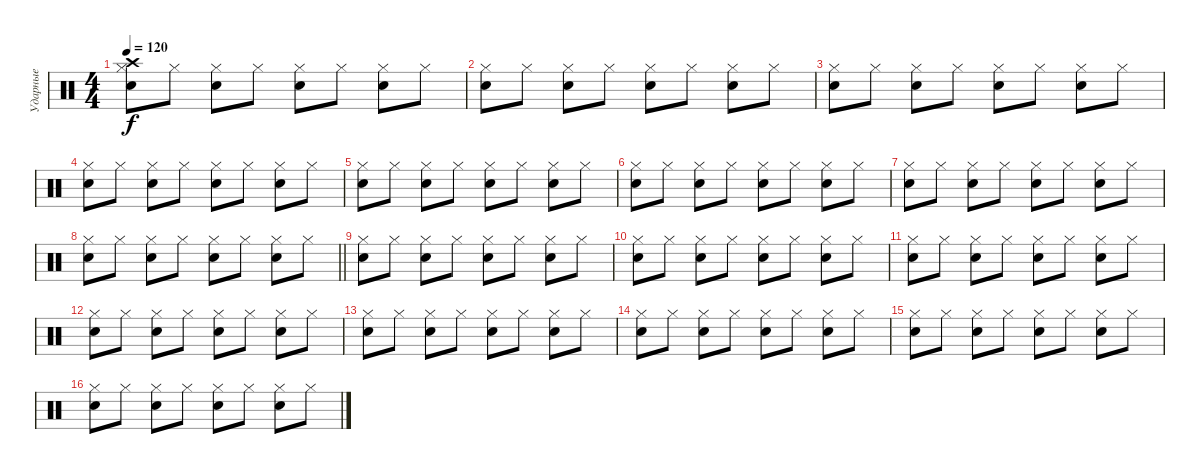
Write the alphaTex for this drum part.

\track ("Ударные" "Ударные") {instrument percussion}
\staff {score}
\articulation defaults
\ts (4 4)
\tempo 120
\clef neutral
\ks c
("Hi-Hat (closed)" "Crash high (hit)" "Snare (hit) 2").8{dy f} "Hi-Hat (closed)".8 ("Hi-Hat (closed)" "Snare (hit) 2").8 "Hi-Hat (closed)".8 ("Hi-Hat (closed)" "Snare (hit) 2").8 "Hi-Hat (closed)".8 ("Hi-Hat (closed)" "Snare (hit) 2").8 "Hi-Hat (closed)".8 |
("Hi-Hat (closed)" "Snare (hit) 2").8 "Hi-Hat (closed)".8 ("Hi-Hat (closed)" "Snare (hit) 2").8 "Hi-Hat (closed)".8 ("Hi-Hat (closed)" "Snare (hit) 2").8 "Hi-Hat (closed)".8 ("Hi-Hat (closed)" "Snare (hit) 2").8 "Hi-Hat (closed)".8 |
("Hi-Hat (closed)" "Snare (hit) 2").8 "Hi-Hat (closed)".8 ("Hi-Hat (closed)" "Snare (hit) 2").8 "Hi-Hat (closed)".8 ("Hi-Hat (closed)" "Snare (hit) 2").8 "Hi-Hat (closed)".8 ("Hi-Hat (closed)" "Snare (hit) 2").8 "Hi-Hat (closed)".8 |
("Hi-Hat (closed)" "Snare (hit) 2").8 "Hi-Hat (closed)".8 ("Hi-Hat (closed)" "Snare (hit) 2").8 "Hi-Hat (closed)".8 ("Hi-Hat (closed)" "Snare (hit) 2").8 "Hi-Hat (closed)".8 ("Hi-Hat (closed)" "Snare (hit) 2").8 "Hi-Hat (closed)".8 |
("Hi-Hat (closed)" "Snare (hit) 2").8 "Hi-Hat (closed)".8 ("Hi-Hat (closed)" "Snare (hit) 2").8 "Hi-Hat (closed)".8 ("Hi-Hat (closed)" "Snare (hit) 2").8 "Hi-Hat (closed)".8 ("Hi-Hat (closed)" "Snare (hit) 2").8 "Hi-Hat (closed)".8 |
("Hi-Hat (closed)" "Snare (hit) 2").8 "Hi-Hat (closed)".8 ("Hi-Hat (closed)" "Snare (hit) 2").8 "Hi-Hat (closed)".8 ("Hi-Hat (closed)" "Snare (hit) 2").8 "Hi-Hat (closed)".8 ("Hi-Hat (closed)" "Snare (hit) 2").8 "Hi-Hat (closed)".8 |
("Hi-Hat (closed)" "Snare (hit) 2").8 "Hi-Hat (closed)".8 ("Hi-Hat (closed)" "Snare (hit) 2").8 "Hi-Hat (closed)".8 ("Hi-Hat (closed)" "Snare (hit) 2").8 "Hi-Hat (closed)".8 ("Hi-Hat (closed)" "Snare (hit) 2").8 "Hi-Hat (closed)".8 |
\barLineRight lightlight
("Hi-Hat (closed)" "Snare (hit) 2").8 "Hi-Hat (closed)".8 ("Hi-Hat (closed)" "Snare (hit) 2").8 "Hi-Hat (closed)".8 ("Hi-Hat (closed)" "Snare (hit) 2").8 "Hi-Hat (closed)".8 ("Hi-Hat (closed)" "Snare (hit) 2").8 "Hi-Hat (closed)".8 |
("Hi-Hat (closed)" "Snare (hit) 2").8 "Hi-Hat (closed)".8 ("Hi-Hat (closed)" "Snare (hit) 2").8 "Hi-Hat (closed)".8 ("Hi-Hat (closed)" "Snare (hit) 2").8 "Hi-Hat (closed)".8 ("Hi-Hat (closed)" "Snare (hit) 2").8 "Hi-Hat (closed)".8 |
("Hi-Hat (closed)" "Snare (hit) 2").8 "Hi-Hat (closed)".8 ("Hi-Hat (closed)" "Snare (hit) 2").8 "Hi-Hat (closed)".8 ("Hi-Hat (closed)" "Snare (hit) 2").8 "Hi-Hat (closed)".8 ("Hi-Hat (closed)" "Snare (hit) 2").8 "Hi-Hat (closed)".8 |
("Hi-Hat (closed)" "Snare (hit) 2").8 "Hi-Hat (closed)".8 ("Hi-Hat (closed)" "Snare (hit) 2").8 "Hi-Hat (closed)".8 ("Hi-Hat (closed)" "Snare (hit) 2").8 "Hi-Hat (closed)".8 ("Hi-Hat (closed)" "Snare (hit) 2").8 "Hi-Hat (closed)".8 |
("Hi-Hat (closed)" "Snare (hit) 2").8 "Hi-Hat (closed)".8 ("Hi-Hat (closed)" "Snare (hit) 2").8 "Hi-Hat (closed)".8 ("Hi-Hat (closed)" "Snare (hit) 2").8 "Hi-Hat (closed)".8 ("Hi-Hat (closed)" "Snare (hit) 2").8 "Hi-Hat (closed)".8 |
("Hi-Hat (closed)" "Snare (hit) 2").8 "Hi-Hat (closed)".8 ("Hi-Hat (closed)" "Snare (hit) 2").8 "Hi-Hat (closed)".8 ("Hi-Hat (closed)" "Snare (hit) 2").8 "Hi-Hat (closed)".8 ("Hi-Hat (closed)" "Snare (hit) 2").8 "Hi-Hat (closed)".8 |
("Hi-Hat (closed)" "Snare (hit) 2").8 "Hi-Hat (closed)".8 ("Hi-Hat (closed)" "Snare (hit) 2").8 "Hi-Hat (closed)".8 ("Hi-Hat (closed)" "Snare (hit) 2").8 "Hi-Hat (closed)".8 ("Hi-Hat (closed)" "Snare (hit) 2").8 "Hi-Hat (closed)".8 |
("Hi-Hat (closed)" "Snare (hit) 2").8 "Hi-Hat (closed)".8 ("Hi-Hat (closed)" "Snare (hit) 2").8 "Hi-Hat (closed)".8 ("Hi-Hat (closed)" "Snare (hit) 2").8 "Hi-Hat (closed)".8 ("Hi-Hat (closed)" "Snare (hit) 2").8 "Hi-Hat (closed)".8 |
("Hi-Hat (closed)" "Snare (hit) 2").8 "Hi-Hat (closed)".8 ("Hi-Hat (closed)" "Snare (hit) 2").8 "Hi-Hat (closed)".8 ("Hi-Hat (closed)" "Snare (hit) 2").8 "Hi-Hat (closed)".8 ("Hi-Hat (closed)" "Snare (hit) 2").8 "Hi-Hat (closed)".8
